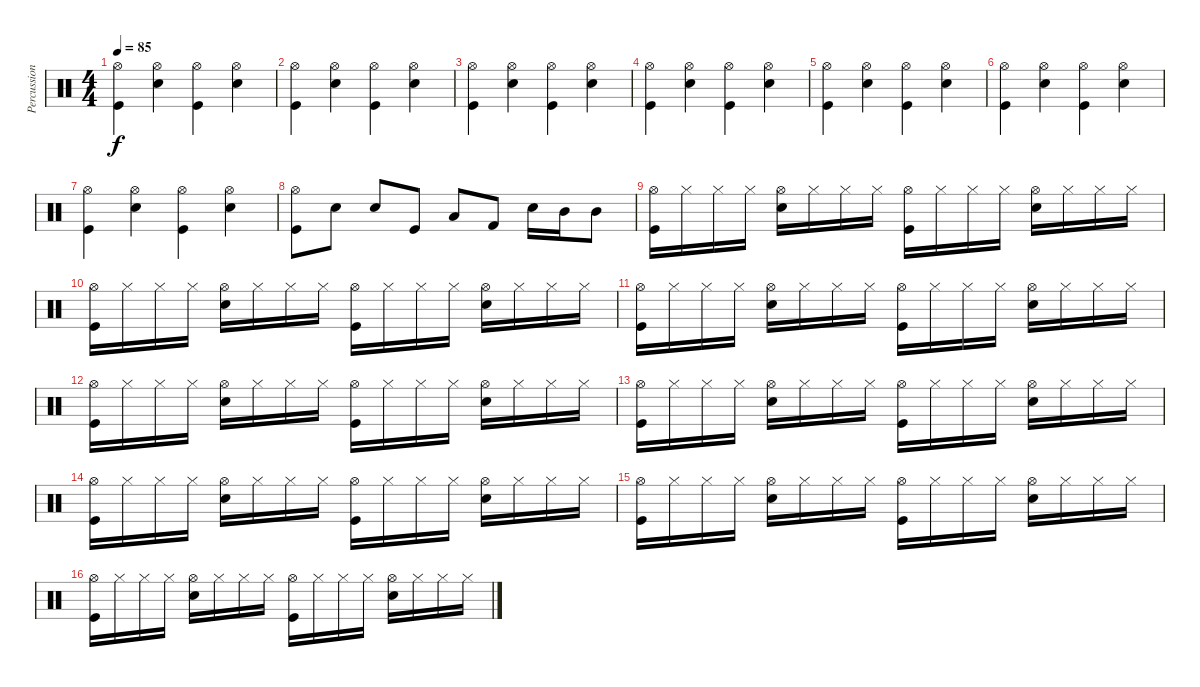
\track ("Percussions" "Percussion") {instrument percussion}
\staff {score}
\articulation defaults
\ts (4 4)
\tempo 85
\clef neutral
\ks c
("Hi-Hat (open)" "Kick (hit)").4{dy f} ("Hi-Hat (open)" "Snare (hit) 2").4 ("Hi-Hat (open)" "Kick (hit)").4 ("Hi-Hat (open)" "Snare (hit) 2").4 |
("Hi-Hat (open)" "Kick (hit)").4 ("Hi-Hat (open)" "Snare (hit) 2").4 ("Hi-Hat (open)" "Kick (hit)").4 ("Hi-Hat (open)" "Snare (hit) 2").4 |
("Hi-Hat (open)" "Kick (hit)").4 ("Hi-Hat (open)" "Snare (hit) 2").4 ("Hi-Hat (open)" "Kick (hit)").4 ("Hi-Hat (open)" "Snare (hit) 2").4 |
("Hi-Hat (open)" "Kick (hit)").4 ("Hi-Hat (open)" "Snare (hit) 2").4 ("Hi-Hat (open)" "Kick (hit)").4 ("Hi-Hat (open)" "Snare (hit) 2").4 |
("Hi-Hat (open)" "Kick (hit)").4 ("Hi-Hat (open)" "Snare (hit) 2").4 ("Hi-Hat (open)" "Kick (hit)").4 ("Hi-Hat (open)" "Snare (hit) 2").4 |
("Hi-Hat (open)" "Kick (hit)").4 ("Hi-Hat (open)" "Snare (hit) 2").4 ("Hi-Hat (open)" "Kick (hit)").4 ("Hi-Hat (open)" "Snare (hit) 2").4 |
("Hi-Hat (open)" "Kick (hit)").4 ("Hi-Hat (open)" "Snare (hit) 2").4 ("Hi-Hat (open)" "Kick (hit)").4 ("Hi-Hat (open)" "Snare (hit) 2").4 |
("Hi-Hat (open)" "Kick (hit)").8 "Snare (hit) 2".8 "Snare (hit) 2".8 "Kick (hit)".8 "Low Tom (hit)".8 "Kick (hit) 2".8 "Snare (hit) 2".16 "Mid Tom (hit)".16 "Mid Tom (hit)".8 |
("Hi-Hat (open)" "Kick (hit)").16 "Hi-Hat (closed)".16 "Hi-Hat (closed)".16 "Hi-Hat (closed)".16 ("Hi-Hat (open)" "Snare (hit) 2").16 "Hi-Hat (closed)".16 "Hi-Hat (closed)".16 "Hi-Hat (closed)".16 ("Hi-Hat (open)" "Kick (hit)").16 "Hi-Hat (closed)".16 "Hi-Hat (closed)".16 "Hi-Hat (closed)".16 ("Hi-Hat (open)" "Snare (hit) 2").16 "Hi-Hat (closed)".16 "Hi-Hat (closed)".16 "Hi-Hat (closed)".16 |
("Hi-Hat (open)" "Kick (hit)").16 "Hi-Hat (closed)".16 "Hi-Hat (closed)".16 "Hi-Hat (closed)".16 ("Hi-Hat (open)" "Snare (hit) 2").16 "Hi-Hat (closed)".16 "Hi-Hat (closed)".16 "Hi-Hat (closed)".16 ("Hi-Hat (open)" "Kick (hit)").16 "Hi-Hat (closed)".16 "Hi-Hat (closed)".16 "Hi-Hat (closed)".16 ("Hi-Hat (open)" "Snare (hit) 2").16 "Hi-Hat (closed)".16 "Hi-Hat (closed)".16 "Hi-Hat (closed)".16 |
("Hi-Hat (open)" "Kick (hit)").16 "Hi-Hat (closed)".16 "Hi-Hat (closed)".16 "Hi-Hat (closed)".16 ("Hi-Hat (open)" "Snare (hit) 2").16 "Hi-Hat (closed)".16 "Hi-Hat (closed)".16 "Hi-Hat (closed)".16 ("Hi-Hat (open)" "Kick (hit)").16 "Hi-Hat (closed)".16 "Hi-Hat (closed)".16 "Hi-Hat (closed)".16 ("Hi-Hat (open)" "Snare (hit) 2").16 "Hi-Hat (closed)".16 "Hi-Hat (closed)".16 "Hi-Hat (closed)".16 |
("Hi-Hat (open)" "Kick (hit)").16 "Hi-Hat (closed)".16 "Hi-Hat (closed)".16 "Hi-Hat (closed)".16 ("Hi-Hat (open)" "Snare (hit) 2").16 "Hi-Hat (closed)".16 "Hi-Hat (closed)".16 "Hi-Hat (closed)".16 ("Hi-Hat (open)" "Kick (hit)").16 "Hi-Hat (closed)".16 "Hi-Hat (closed)".16 "Hi-Hat (closed)".16 ("Hi-Hat (open)" "Snare (hit) 2").16 "Hi-Hat (closed)".16 "Hi-Hat (closed)".16 "Hi-Hat (closed)".16 |
("Hi-Hat (open)" "Kick (hit)").16 "Hi-Hat (closed)".16 "Hi-Hat (closed)".16 "Hi-Hat (closed)".16 ("Hi-Hat (open)" "Snare (hit) 2").16 "Hi-Hat (closed)".16 "Hi-Hat (closed)".16 "Hi-Hat (closed)".16 ("Hi-Hat (open)" "Kick (hit)").16 "Hi-Hat (closed)".16 "Hi-Hat (closed)".16 "Hi-Hat (closed)".16 ("Hi-Hat (open)" "Snare (hit) 2").16 "Hi-Hat (closed)".16 "Hi-Hat (closed)".16 "Hi-Hat (closed)".16 |
("Hi-Hat (open)" "Kick (hit)").16 "Hi-Hat (closed)".16 "Hi-Hat (closed)".16 "Hi-Hat (closed)".16 ("Hi-Hat (open)" "Snare (hit) 2").16 "Hi-Hat (closed)".16 "Hi-Hat (closed)".16 "Hi-Hat (closed)".16 ("Hi-Hat (open)" "Kick (hit)").16 "Hi-Hat (closed)".16 "Hi-Hat (closed)".16 "Hi-Hat (closed)".16 ("Hi-Hat (open)" "Snare (hit) 2").16 "Hi-Hat (closed)".16 "Hi-Hat (closed)".16 "Hi-Hat (closed)".16 |
("Hi-Hat (open)" "Kick (hit)").16 "Hi-Hat (closed)".16 "Hi-Hat (closed)".16 "Hi-Hat (closed)".16 ("Hi-Hat (open)" "Snare (hit) 2").16 "Hi-Hat (closed)".16 "Hi-Hat (closed)".16 "Hi-Hat (closed)".16 ("Hi-Hat (open)" "Kick (hit)").16 "Hi-Hat (closed)".16 "Hi-Hat (closed)".16 "Hi-Hat (closed)".16 ("Hi-Hat (open)" "Snare (hit) 2").16 "Hi-Hat (closed)".16 "Hi-Hat (closed)".16 "Hi-Hat (closed)".16 |
("Hi-Hat (open)" "Kick (hit)").16 "Hi-Hat (closed)".16 "Hi-Hat (closed)".16 "Hi-Hat (closed)".16 ("Hi-Hat (open)" "Snare (hit) 2").16 "Hi-Hat (closed)".16 "Hi-Hat (closed)".16 "Hi-Hat (closed)".16 ("Hi-Hat (open)" "Kick (hit)").16 "Hi-Hat (closed)".16 "Hi-Hat (closed)".16 "Hi-Hat (closed)".16 ("Hi-Hat (open)" "Snare (hit) 2").16 "Hi-Hat (closed)".16 "Hi-Hat (closed)".16 "Hi-Hat (closed)".16
